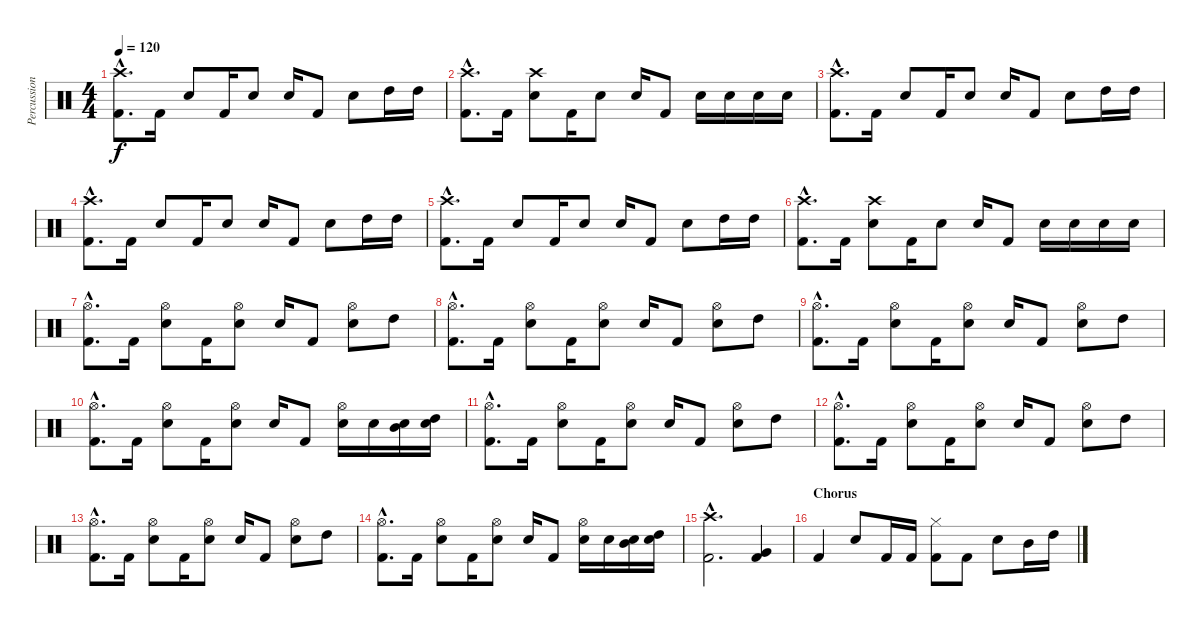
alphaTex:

\track ("Percussion" "Percussion") {instrument percussion}
\staff {score}
\articulation defaults
\ts (4 4)
\tempo 120
\clef neutral
\ks c
("Crash high (hit)"{hac} "Kick (hit) 2"{hac}).8{d dy f} "Kick (hit) 2".16 "Electric Snare (hit)".8 "Kick (hit) 2".16 "Electric Snare (hit)".8 "Electric Snare (hit)".16 "Kick (hit) 2".8 "Electric Snare (hit)".8 "High Tom (hit)".16 "High Tom (hit)".16 |
("Crash high (hit)"{hac} "Kick (hit) 2"{hac}).8{d} "Kick (hit) 2".16 ("Crash high (hit)" "Electric Snare (hit)").8 "Kick (hit) 2".16 "Electric Snare (hit)".8 "Electric Snare (hit)".16 "Kick (hit) 2".8 "Electric Snare (hit)".16 "Electric Snare (hit)".16 "Electric Snare (hit)".16 "Electric Snare (hit)".16 |
("Crash high (hit)"{hac} "Kick (hit) 2"{hac}).8{d} "Kick (hit) 2".16 "Electric Snare (hit)".8 "Kick (hit) 2".16 "Electric Snare (hit)".8 "Electric Snare (hit)".16 "Kick (hit) 2".8 "Electric Snare (hit)".8 "High Tom (hit)".16 "High Tom (hit)".16 |
("Crash high (hit)"{hac} "Kick (hit) 2"{hac}).8{d} "Kick (hit) 2".16 "Electric Snare (hit)".8 "Kick (hit) 2".16 "Electric Snare (hit)".8 "Electric Snare (hit)".16 "Kick (hit) 2".8 "Electric Snare (hit)".8 "High Tom (hit)".16 "High Tom (hit)".16 |
("Crash high (hit)"{hac} "Kick (hit) 2"{hac}).8{d} "Kick (hit) 2".16 "Electric Snare (hit)".8 "Kick (hit) 2".16 "Electric Snare (hit)".8 "Electric Snare (hit)".16 "Kick (hit) 2".8 "Electric Snare (hit)".8 "High Tom (hit)".16 "High Tom (hit)".16 |
("Crash high (hit)"{hac} "Kick (hit) 2"{hac}).8{d} "Kick (hit) 2".16 ("Crash high (hit)" "Electric Snare (hit)").8 "Kick (hit) 2".16 "Electric Snare (hit)".8 "Electric Snare (hit)".16 "Kick (hit) 2".8 "Electric Snare (hit)".16 "Electric Snare (hit)".16 "Electric Snare (hit)".16 "Electric Snare (hit)".16 |
("Hi-Hat (open)"{hac} "Kick (hit) 2"{hac}).8{d} "Kick (hit) 2".16 ("Hi-Hat (open)" "Electric Snare (hit)").8 "Kick (hit) 2".16 ("Hi-Hat (open)" "Electric Snare (hit)").8 "Electric Snare (hit)".16 "Kick (hit) 2".8 ("Hi-Hat (open)" "Electric Snare (hit)").8 "High Tom (hit)".8 |
("Hi-Hat (open)"{hac} "Kick (hit) 2"{hac}).8{d} "Kick (hit) 2".16 ("Hi-Hat (open)" "Electric Snare (hit)").8 "Kick (hit) 2".16 ("Hi-Hat (open)" "Electric Snare (hit)").8 "Electric Snare (hit)".16 "Kick (hit) 2".8 ("Hi-Hat (open)" "Electric Snare (hit)").8 "High Tom (hit)".8 |
("Hi-Hat (open)"{hac} "Kick (hit) 2"{hac}).8{d} "Kick (hit) 2".16 ("Hi-Hat (open)" "Electric Snare (hit)").8 "Kick (hit) 2".16 ("Hi-Hat (open)" "Electric Snare (hit)").8 "Electric Snare (hit)".16 "Kick (hit) 2".8 ("Hi-Hat (open)" "Electric Snare (hit)").8 "High Tom (hit)".8 |
("Hi-Hat (open)"{hac} "Kick (hit) 2"{hac}).8{d} "Kick (hit) 2".16 ("Hi-Hat (open)" "Electric Snare (hit)").8 "Kick (hit) 2".16 ("Hi-Hat (open)" "Electric Snare (hit)").8 "Electric Snare (hit)".16 "Kick (hit) 2".8 ("Hi-Hat (open)" "Electric Snare (hit)").16 "Electric Snare (hit)".16 ("Electric Snare (hit)" "Mid Tom (hit)").16 ("Electric Snare (hit)" "High Tom (hit)").16 |
("Hi-Hat (open)"{hac} "Kick (hit) 2"{hac}).8{d} "Kick (hit) 2".16 ("Hi-Hat (open)" "Electric Snare (hit)").8 "Kick (hit) 2".16 ("Hi-Hat (open)" "Electric Snare (hit)").8 "Electric Snare (hit)".16 "Kick (hit) 2".8 ("Hi-Hat (open)" "Electric Snare (hit)").8 "High Tom (hit)".8 |
("Hi-Hat (open)"{hac} "Kick (hit) 2"{hac}).8{d} "Kick (hit) 2".16 ("Hi-Hat (open)" "Electric Snare (hit)").8 "Kick (hit) 2".16 ("Hi-Hat (open)" "Electric Snare (hit)").8 "Electric Snare (hit)".16 "Kick (hit) 2".8 ("Hi-Hat (open)" "Electric Snare (hit)").8 "High Tom (hit)".8 |
("Hi-Hat (open)"{hac} "Kick (hit) 2"{hac}).8{d} "Kick (hit) 2".16 ("Hi-Hat (open)" "Electric Snare (hit)").8 "Kick (hit) 2".16 ("Hi-Hat (open)" "Electric Snare (hit)").8 "Electric Snare (hit)".16 "Kick (hit) 2".8 ("Hi-Hat (open)" "Electric Snare (hit)").8 "High Tom (hit)".8 |
("Hi-Hat (open)"{hac} "Kick (hit) 2"{hac}).8{d} "Kick (hit) 2".16 ("Hi-Hat (open)" "Electric Snare (hit)").8 "Kick (hit) 2".16 ("Hi-Hat (open)" "Electric Snare (hit)").8 "Electric Snare (hit)".16 "Kick (hit) 2".8 ("Hi-Hat (open)" "Electric Snare (hit)").16 "Electric Snare (hit)".16 ("Electric Snare (hit)" "Mid Tom (hit)").16 ("Electric Snare (hit)" "High Tom (hit)").16 |
("Crash high (hit)"{hac} "Kick (hit) 2"{hac}).2{d} ("Very Low Tom (hit)" "Kick (hit) 2").4 |
\section ("" "Chorus")
"Kick (hit) 2".4 "Electric Snare (hit)".8 "Kick (hit) 2".16 "Kick (hit) 2".16 ("Hi-Hat (closed)" "Kick (hit) 2").8 "Kick (hit) 2".8 "Electric Snare (hit)".8 "Mid Tom (hit)".16 "High Tom (hit)".16
